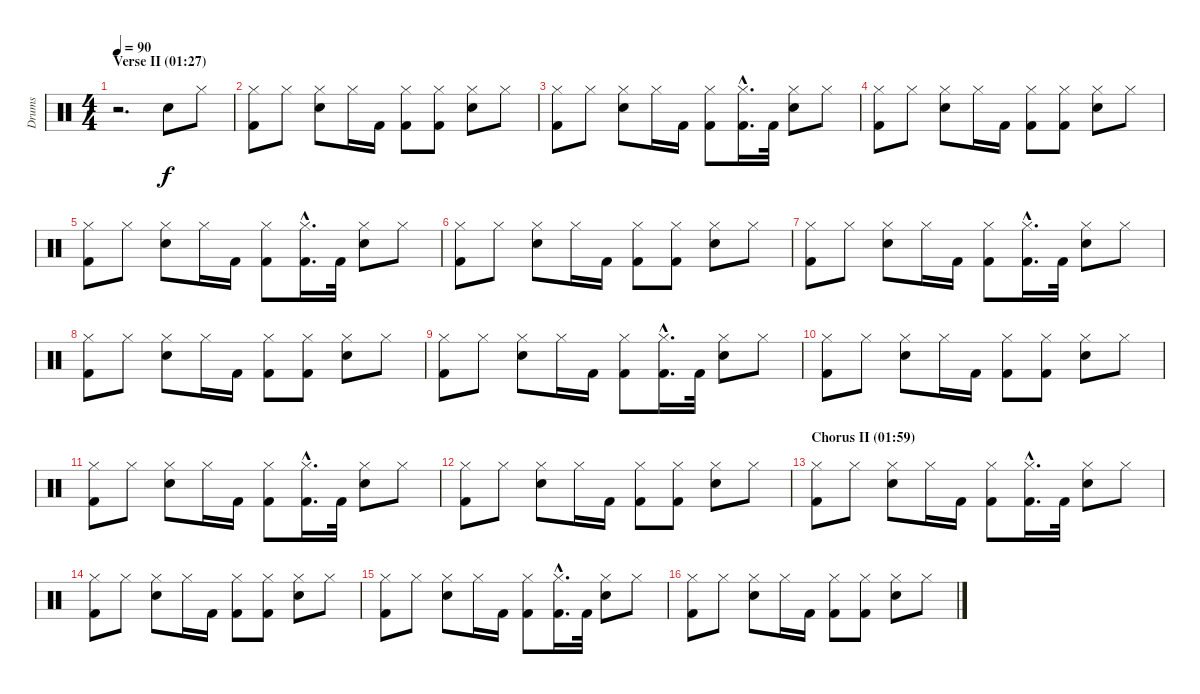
\track ("Drums" "Drums") {instrument percussion}
\staff {score}
\articulation defaults
\ts (4 4)
\section ("" "Verse II (01:27)")
\tempo 90
\clef neutral
\ks c
r.2{d dy f} "Electric Snare (hit)".8 "Hi-Hat (closed)".8 |
("Hi-Hat (closed)" "Kick (hit) 2").8 "Hi-Hat (closed)".8 ("Hi-Hat (closed)" "Electric Snare (hit)").8 "Hi-Hat (closed)".16 "Kick (hit) 2".16 ("Hi-Hat (closed)" "Kick (hit) 2").8 ("Hi-Hat (closed)" "Kick (hit) 2").8 ("Hi-Hat (closed)" "Electric Snare (hit)").8 "Hi-Hat (closed)".8 |
("Hi-Hat (closed)" "Kick (hit) 2").8 "Hi-Hat (closed)".8 ("Hi-Hat (closed)" "Electric Snare (hit)").8 "Hi-Hat (closed)".16 "Kick (hit) 2".16 ("Hi-Hat (closed)" "Kick (hit) 2").8 ("Hi-Hat (closed)"{hac} "Kick (hit) 2"{hac}).16{d} "Kick (hit) 2".32 ("Hi-Hat (closed)" "Electric Snare (hit)").8 "Hi-Hat (closed)".8 |
("Hi-Hat (closed)" "Kick (hit) 2").8 "Hi-Hat (closed)".8 ("Hi-Hat (closed)" "Electric Snare (hit)").8 "Hi-Hat (closed)".16 "Kick (hit) 2".16 ("Hi-Hat (closed)" "Kick (hit) 2").8 ("Hi-Hat (closed)" "Kick (hit) 2").8 ("Hi-Hat (closed)" "Electric Snare (hit)").8 "Hi-Hat (closed)".8 |
("Hi-Hat (closed)" "Kick (hit) 2").8 "Hi-Hat (closed)".8 ("Hi-Hat (closed)" "Electric Snare (hit)").8 "Hi-Hat (closed)".16 "Kick (hit) 2".16 ("Hi-Hat (closed)" "Kick (hit) 2").8 ("Hi-Hat (closed)"{hac} "Kick (hit) 2"{hac}).16{d} "Kick (hit) 2".32 ("Hi-Hat (closed)" "Electric Snare (hit)").8 "Hi-Hat (closed)".8 |
("Hi-Hat (closed)" "Kick (hit) 2").8 "Hi-Hat (closed)".8 ("Hi-Hat (closed)" "Electric Snare (hit)").8 "Hi-Hat (closed)".16 "Kick (hit) 2".16 ("Hi-Hat (closed)" "Kick (hit) 2").8 ("Hi-Hat (closed)" "Kick (hit) 2").8 ("Hi-Hat (closed)" "Electric Snare (hit)").8 "Hi-Hat (closed)".8 |
("Hi-Hat (closed)" "Kick (hit) 2").8 "Hi-Hat (closed)".8 ("Hi-Hat (closed)" "Electric Snare (hit)").8 "Hi-Hat (closed)".16 "Kick (hit) 2".16 ("Hi-Hat (closed)" "Kick (hit) 2").8 ("Hi-Hat (closed)"{hac} "Kick (hit) 2"{hac}).16{d} "Kick (hit) 2".32 ("Hi-Hat (closed)" "Electric Snare (hit)").8 "Hi-Hat (closed)".8 |
("Hi-Hat (closed)" "Kick (hit) 2").8 "Hi-Hat (closed)".8 ("Hi-Hat (closed)" "Electric Snare (hit)").8 "Hi-Hat (closed)".16 "Kick (hit) 2".16 ("Hi-Hat (closed)" "Kick (hit) 2").8 ("Hi-Hat (closed)" "Kick (hit) 2").8 ("Hi-Hat (closed)" "Electric Snare (hit)").8 "Hi-Hat (closed)".8 |
("Hi-Hat (closed)" "Kick (hit) 2").8 "Hi-Hat (closed)".8 ("Hi-Hat (closed)" "Electric Snare (hit)").8 "Hi-Hat (closed)".16 "Kick (hit) 2".16 ("Hi-Hat (closed)" "Kick (hit) 2").8 ("Hi-Hat (closed)"{hac} "Kick (hit) 2"{hac}).16{d} "Kick (hit) 2".32 ("Hi-Hat (closed)" "Electric Snare (hit)").8 "Hi-Hat (closed)".8 |
("Hi-Hat (closed)" "Kick (hit) 2").8 "Hi-Hat (closed)".8 ("Hi-Hat (closed)" "Electric Snare (hit)").8 "Hi-Hat (closed)".16 "Kick (hit) 2".16 ("Hi-Hat (closed)" "Kick (hit) 2").8 ("Hi-Hat (closed)" "Kick (hit) 2").8 ("Hi-Hat (closed)" "Electric Snare (hit)").8 "Hi-Hat (closed)".8 |
("Hi-Hat (closed)" "Kick (hit) 2").8 "Hi-Hat (closed)".8 ("Hi-Hat (closed)" "Electric Snare (hit)").8 "Hi-Hat (closed)".16 "Kick (hit) 2".16 ("Hi-Hat (closed)" "Kick (hit) 2").8 ("Hi-Hat (closed)"{hac} "Kick (hit) 2"{hac}).16{d} "Kick (hit) 2".32 ("Hi-Hat (closed)" "Electric Snare (hit)").8 "Hi-Hat (closed)".8 |
("Hi-Hat (closed)" "Kick (hit) 2").8 "Hi-Hat (closed)".8 ("Hi-Hat (closed)" "Electric Snare (hit)").8 "Hi-Hat (closed)".16 "Kick (hit) 2".16 ("Hi-Hat (closed)" "Kick (hit) 2").8 ("Hi-Hat (closed)" "Kick (hit) 2").8 ("Hi-Hat (closed)" "Electric Snare (hit)").8 "Hi-Hat (closed)".8 |
\section ("" "Chorus II (01:59)")
("Hi-Hat (closed)" "Kick (hit) 2").8 "Hi-Hat (closed)".8 ("Hi-Hat (closed)" "Electric Snare (hit)").8 "Hi-Hat (closed)".16 "Kick (hit) 2".16 ("Hi-Hat (closed)" "Kick (hit) 2").8 ("Hi-Hat (closed)"{hac} "Kick (hit) 2"{hac}).16{d} "Kick (hit) 2".32 ("Hi-Hat (closed)" "Electric Snare (hit)").8 "Hi-Hat (closed)".8 |
("Hi-Hat (closed)" "Kick (hit) 2").8 "Hi-Hat (closed)".8 ("Hi-Hat (closed)" "Electric Snare (hit)").8 "Hi-Hat (closed)".16 "Kick (hit) 2".16 ("Hi-Hat (closed)" "Kick (hit) 2").8 ("Hi-Hat (closed)" "Kick (hit) 2").8 ("Hi-Hat (closed)" "Electric Snare (hit)").8 "Hi-Hat (closed)".8 |
("Hi-Hat (closed)" "Kick (hit) 2").8 "Hi-Hat (closed)".8 ("Hi-Hat (closed)" "Electric Snare (hit)").8 "Hi-Hat (closed)".16 "Kick (hit) 2".16 ("Hi-Hat (closed)" "Kick (hit) 2").8 ("Hi-Hat (closed)"{hac} "Kick (hit) 2"{hac}).16{d} "Kick (hit) 2".32 ("Hi-Hat (closed)" "Electric Snare (hit)").8 "Hi-Hat (closed)".8 |
("Hi-Hat (closed)" "Kick (hit) 2").8 "Hi-Hat (closed)".8 ("Hi-Hat (closed)" "Electric Snare (hit)").8 "Hi-Hat (closed)".16 "Kick (hit) 2".16 ("Hi-Hat (closed)" "Kick (hit) 2").8 ("Hi-Hat (closed)" "Kick (hit) 2").8 ("Hi-Hat (closed)" "Electric Snare (hit)").8 "Hi-Hat (closed)".8
